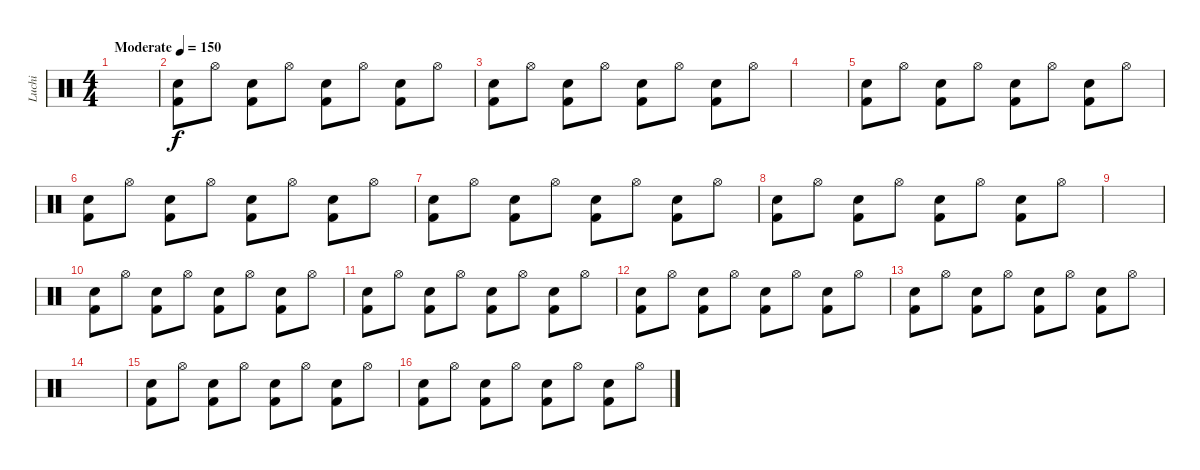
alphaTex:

\track ("Luchi" "Luchi") {instrument percussion}
\staff {score}
\articulation defaults
\ts (4 4)
\tempo (150 "Moderate")
\clef neutral
\ks c
|
("Snare (hit) 2" "Kick (hit) 2").8 "Hi-Hat (open)".8 ("Snare (hit) 2" "Kick (hit) 2").8 "Hi-Hat (open)".8 ("Snare (hit) 2" "Kick (hit) 2").8 "Hi-Hat (open)".8 ("Snare (hit) 2" "Kick (hit) 2").8 "Hi-Hat (open)".8 |
("Snare (hit) 2" "Kick (hit) 2").8 "Hi-Hat (open)".8 ("Snare (hit) 2" "Kick (hit) 2").8 "Hi-Hat (open)".8 ("Snare (hit) 2" "Kick (hit) 2").8 "Hi-Hat (open)".8 ("Snare (hit) 2" "Kick (hit) 2").8 "Hi-Hat (open)".8 |
|
("Snare (hit) 2" "Kick (hit) 2").8 "Hi-Hat (open)".8 ("Snare (hit) 2" "Kick (hit) 2").8 "Hi-Hat (open)".8 ("Snare (hit) 2" "Kick (hit) 2").8 "Hi-Hat (open)".8 ("Snare (hit) 2" "Kick (hit) 2").8 "Hi-Hat (open)".8 |
("Snare (hit) 2" "Kick (hit) 2").8 "Hi-Hat (open)".8 ("Snare (hit) 2" "Kick (hit) 2").8 "Hi-Hat (open)".8 ("Snare (hit) 2" "Kick (hit) 2").8 "Hi-Hat (open)".8 ("Snare (hit) 2" "Kick (hit) 2").8 "Hi-Hat (open)".8 |
("Snare (hit) 2" "Kick (hit) 2").8 "Hi-Hat (open)".8 ("Snare (hit) 2" "Kick (hit) 2").8 "Hi-Hat (open)".8 ("Snare (hit) 2" "Kick (hit) 2").8 "Hi-Hat (open)".8 ("Snare (hit) 2" "Kick (hit) 2").8 "Hi-Hat (open)".8 |
("Snare (hit) 2" "Kick (hit) 2").8 "Hi-Hat (open)".8 ("Snare (hit) 2" "Kick (hit) 2").8 "Hi-Hat (open)".8 ("Snare (hit) 2" "Kick (hit) 2").8 "Hi-Hat (open)".8 ("Snare (hit) 2" "Kick (hit) 2").8 "Hi-Hat (open)".8 |
|
("Snare (hit) 2" "Kick (hit) 2").8 "Hi-Hat (open)".8 ("Snare (hit) 2" "Kick (hit) 2").8 "Hi-Hat (open)".8 ("Snare (hit) 2" "Kick (hit) 2").8 "Hi-Hat (open)".8 ("Snare (hit) 2" "Kick (hit) 2").8 "Hi-Hat (open)".8 |
("Snare (hit) 2" "Kick (hit) 2").8 "Hi-Hat (open)".8 ("Snare (hit) 2" "Kick (hit) 2").8 "Hi-Hat (open)".8 ("Snare (hit) 2" "Kick (hit) 2").8 "Hi-Hat (open)".8 ("Snare (hit) 2" "Kick (hit) 2").8 "Hi-Hat (open)".8 |
("Snare (hit) 2" "Kick (hit) 2").8 "Hi-Hat (open)".8 ("Snare (hit) 2" "Kick (hit) 2").8 "Hi-Hat (open)".8 ("Snare (hit) 2" "Kick (hit) 2").8 "Hi-Hat (open)".8 ("Snare (hit) 2" "Kick (hit) 2").8 "Hi-Hat (open)".8 |
("Snare (hit) 2" "Kick (hit) 2").8 "Hi-Hat (open)".8 ("Snare (hit) 2" "Kick (hit) 2").8 "Hi-Hat (open)".8 ("Snare (hit) 2" "Kick (hit) 2").8 "Hi-Hat (open)".8 ("Snare (hit) 2" "Kick (hit) 2").8 "Hi-Hat (open)".8 |
|
("Snare (hit) 2" "Kick (hit) 2").8 "Hi-Hat (open)".8 ("Snare (hit) 2" "Kick (hit) 2").8 "Hi-Hat (open)".8 ("Snare (hit) 2" "Kick (hit) 2").8 "Hi-Hat (open)".8 ("Snare (hit) 2" "Kick (hit) 2").8 "Hi-Hat (open)".8 |
("Snare (hit) 2" "Kick (hit) 2").8 "Hi-Hat (open)".8 ("Snare (hit) 2" "Kick (hit) 2").8 "Hi-Hat (open)".8 ("Snare (hit) 2" "Kick (hit) 2").8 "Hi-Hat (open)".8 ("Snare (hit) 2" "Kick (hit) 2").8 "Hi-Hat (open)".8
